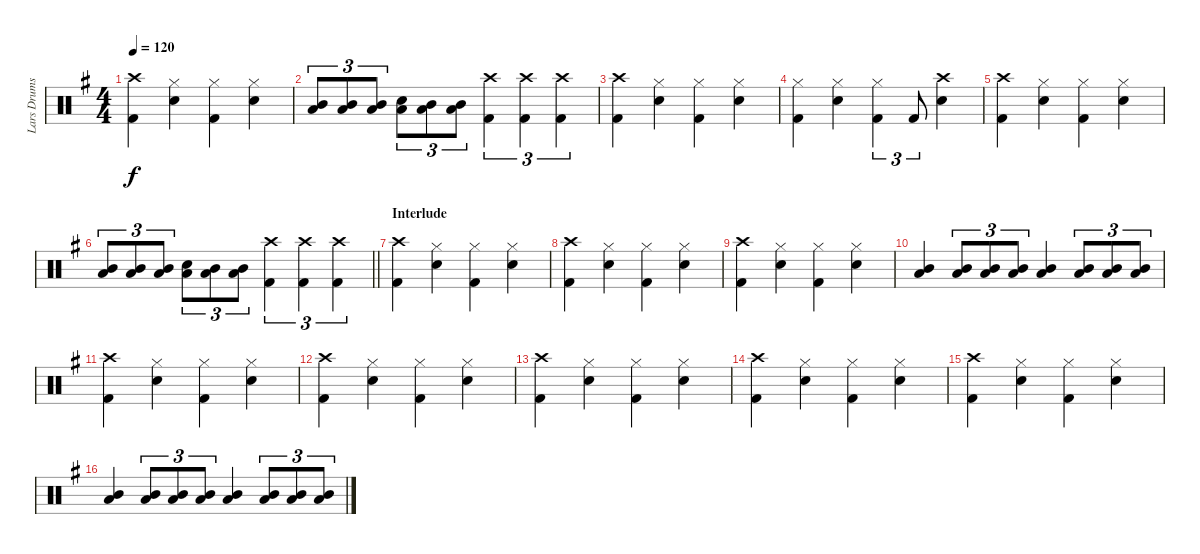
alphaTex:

\track ("Lars Drums" "Lars Drums") {instrument percussion}
\staff {score}
\articulation defaults
\ts (4 4)
\tempo 120
\clef neutral
\ks g
("Crash high (hit)" "Kick (hit) 2").4{dy f} ("Hi-Hat (closed)" "Snare (hit) 2").4 ("Hi-Hat (closed)" "Kick (hit) 2").4 ("Hi-Hat (closed)" "Snare (hit) 2").4 |
("Low Tom (hit)" "Mid Tom (hit)").8{tu (3 2)} ("Low Tom (hit)" "Mid Tom (hit)").8{tu (3 2)} ("Low Tom (hit)" "Mid Tom (hit)").8{tu (3 2)} ("Low Tom (hit)" "Snare (hit) 2").8{tu (3 2)} ("Low Tom (hit)" "Mid Tom (hit)").8{tu (3 2)} ("Low Tom (hit)" "Mid Tom (hit)").8{tu (3 2)} ("Crash high (hit)" "Kick (hit) 2").4{tu (3 2)} ("Crash high (hit)" "Kick (hit) 2").4{tu (3 2)} ("Crash high (hit)" "Kick (hit) 2").4{tu (3 2)} |
("Crash high (hit)" "Kick (hit) 2").4 ("Hi-Hat (closed)" "Snare (hit) 2").4 ("Hi-Hat (closed)" "Kick (hit) 2").4 ("Hi-Hat (closed)" "Snare (hit) 2").4 |
("Hi-Hat (closed)" "Kick (hit) 2").4 ("Hi-Hat (closed)" "Snare (hit) 2").4 ("Hi-Hat (closed)" "Kick (hit) 2").4{tu (3 2)} "Kick (hit) 2".8{tu (3 2)} ("Crash high (hit)" "Snare (hit) 2").4 |
("Crash high (hit)" "Kick (hit) 2").4 ("Hi-Hat (closed)" "Snare (hit) 2").4 ("Hi-Hat (closed)" "Kick (hit) 2").4 ("Hi-Hat (closed)" "Snare (hit) 2").4 |
\barLineRight lightlight
("Low Tom (hit)" "Mid Tom (hit)").8{tu (3 2)} ("Low Tom (hit)" "Mid Tom (hit)").8{tu (3 2)} ("Low Tom (hit)" "Mid Tom (hit)").8{tu (3 2)} ("Low Tom (hit)" "Snare (hit) 2").8{tu (3 2)} ("Low Tom (hit)" "Mid Tom (hit)").8{tu (3 2)} ("Low Tom (hit)" "Mid Tom (hit)").8{tu (3 2)} ("Crash high (hit)" "Kick (hit) 2").4{tu (3 2)} ("Crash high (hit)" "Kick (hit) 2").4{tu (3 2)} ("Crash high (hit)" "Kick (hit) 2").4{tu (3 2)} |
\section ("" "Interlude")
("Crash high (hit)" "Kick (hit) 2").4 ("Hi-Hat (closed)" "Snare (hit) 2").4 ("Hi-Hat (closed)" "Kick (hit) 2").4 ("Hi-Hat (closed)" "Snare (hit) 2").4 |
("Crash high (hit)" "Kick (hit) 2").4 ("Hi-Hat (closed)" "Snare (hit) 2").4 ("Hi-Hat (closed)" "Kick (hit) 2").4 ("Hi-Hat (closed)" "Snare (hit) 2").4 |
("Crash high (hit)" "Kick (hit) 2").4 ("Hi-Hat (closed)" "Snare (hit) 2").4 ("Hi-Hat (closed)" "Kick (hit) 2").4 ("Hi-Hat (closed)" "Snare (hit) 2").4 |
("Mid Tom (hit)" "Low Tom (hit)").4 ("Mid Tom (hit)" "Low Tom (hit)").8{tu (3 2)} ("Mid Tom (hit)" "Low Tom (hit)").8{tu (3 2)} ("Mid Tom (hit)" "Low Tom (hit)").8{tu (3 2)} ("Mid Tom (hit)" "Low Tom (hit)").4 ("Mid Tom (hit)" "Low Tom (hit)").8{tu (3 2)} ("Mid Tom (hit)" "Low Tom (hit)").8{tu (3 2)} ("Mid Tom (hit)" "Low Tom (hit)").8{tu (3 2)} |
("Crash high (hit)" "Kick (hit) 2").4 ("Hi-Hat (closed)" "Snare (hit) 2").4 ("Hi-Hat (closed)" "Kick (hit) 2").4 ("Hi-Hat (closed)" "Snare (hit) 2").4 |
("Crash high (hit)" "Kick (hit) 2").4 ("Hi-Hat (closed)" "Snare (hit) 2").4 ("Hi-Hat (closed)" "Kick (hit) 2").4 ("Hi-Hat (closed)" "Snare (hit) 2").4 |
("Crash high (hit)" "Kick (hit) 2").4 ("Hi-Hat (closed)" "Snare (hit) 2").4 ("Hi-Hat (closed)" "Kick (hit) 2").4 ("Hi-Hat (closed)" "Snare (hit) 2").4 |
("Crash high (hit)" "Kick (hit) 2").4 ("Hi-Hat (closed)" "Snare (hit) 2").4 ("Hi-Hat (closed)" "Kick (hit) 2").4 ("Hi-Hat (closed)" "Snare (hit) 2").4 |
("Crash high (hit)" "Kick (hit) 2").4 ("Hi-Hat (closed)" "Snare (hit) 2").4 ("Hi-Hat (closed)" "Kick (hit) 2").4 ("Hi-Hat (closed)" "Snare (hit) 2").4 |
("Mid Tom (hit)" "Low Tom (hit)").4 ("Mid Tom (hit)" "Low Tom (hit)").8{tu (3 2)} ("Mid Tom (hit)" "Low Tom (hit)").8{tu (3 2)} ("Mid Tom (hit)" "Low Tom (hit)").8{tu (3 2)} ("Mid Tom (hit)" "Low Tom (hit)").4 ("Mid Tom (hit)" "Low Tom (hit)").8{tu (3 2)} ("Mid Tom (hit)" "Low Tom (hit)").8{tu (3 2)} ("Mid Tom (hit)" "Low Tom (hit)").8{tu (3 2)}
